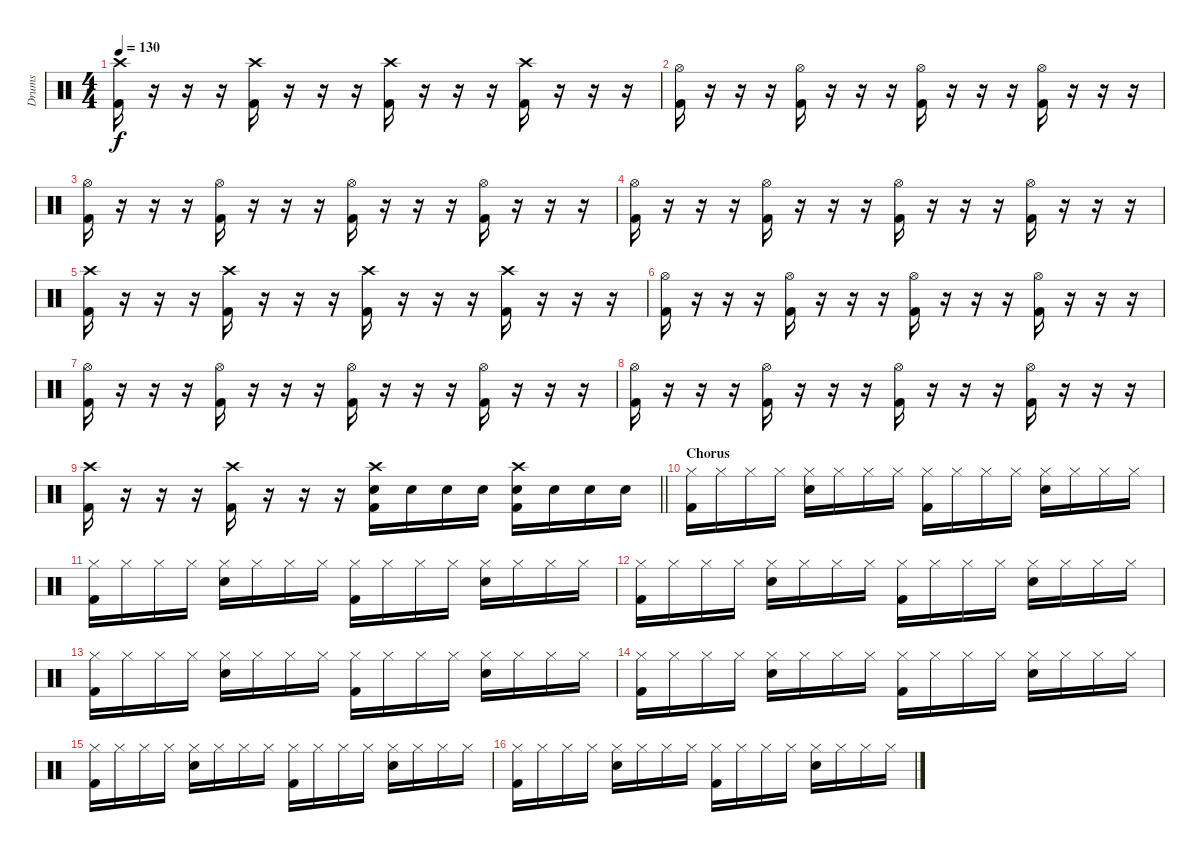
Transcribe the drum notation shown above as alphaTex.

\track ("Drums" "Drums") {instrument percussion}
\staff {score}
\articulation defaults
\ts (4 4)
\tempo 130
\clef neutral
\ks c
("Crash high (hit)" "Kick (hit) 2").16{dy f} r.16 r.16 r.16 ("Crash high (hit)" "Kick (hit) 2").16 r.16 r.16 r.16 ("Crash high (hit)" "Kick (hit) 2").16 r.16 r.16 r.16 ("Crash high (hit)" "Kick (hit) 2").16 r.16 r.16 r.16 |
("Hi-Hat (open)" "Kick (hit) 2").16 r.16 r.16 r.16 ("Hi-Hat (open)" "Kick (hit) 2").16 r.16 r.16 r.16 ("Hi-Hat (open)" "Kick (hit) 2").16 r.16 r.16 r.16 ("Hi-Hat (open)" "Kick (hit) 2").16 r.16 r.16 r.16 |
("Hi-Hat (open)" "Kick (hit) 2").16 r.16 r.16 r.16 ("Hi-Hat (open)" "Kick (hit) 2").16 r.16 r.16 r.16 ("Hi-Hat (open)" "Kick (hit) 2").16 r.16 r.16 r.16 ("Hi-Hat (open)" "Kick (hit) 2").16 r.16 r.16 r.16 |
("Hi-Hat (open)" "Kick (hit) 2").16 r.16 r.16 r.16 ("Hi-Hat (open)" "Kick (hit) 2").16 r.16 r.16 r.16 ("Hi-Hat (open)" "Kick (hit) 2").16 r.16 r.16 r.16 ("Hi-Hat (open)" "Kick (hit) 2").16 r.16 r.16 r.16 |
("Crash high (hit)" "Kick (hit) 2").16 r.16 r.16 r.16 ("Crash high (hit)" "Kick (hit) 2").16 r.16 r.16 r.16 ("Crash high (hit)" "Kick (hit) 2").16 r.16 r.16 r.16 ("Crash high (hit)" "Kick (hit) 2").16 r.16 r.16 r.16 |
("Hi-Hat (open)" "Kick (hit) 2").16 r.16 r.16 r.16 ("Hi-Hat (open)" "Kick (hit) 2").16 r.16 r.16 r.16 ("Hi-Hat (open)" "Kick (hit) 2").16 r.16 r.16 r.16 ("Hi-Hat (open)" "Kick (hit) 2").16 r.16 r.16 r.16 |
("Hi-Hat (open)" "Kick (hit) 2").16 r.16 r.16 r.16 ("Hi-Hat (open)" "Kick (hit) 2").16 r.16 r.16 r.16 ("Hi-Hat (open)" "Kick (hit) 2").16 r.16 r.16 r.16 ("Hi-Hat (open)" "Kick (hit) 2").16 r.16 r.16 r.16 |
("Hi-Hat (open)" "Kick (hit) 2").16 r.16 r.16 r.16 ("Hi-Hat (open)" "Kick (hit) 2").16 r.16 r.16 r.16 ("Hi-Hat (open)" "Kick (hit) 2").16 r.16 r.16 r.16 ("Hi-Hat (open)" "Kick (hit) 2").16 r.16 r.16 r.16 |
\barLineRight lightlight
("Crash high (hit)" "Kick (hit) 2").16 r.16 r.16 r.16 ("Crash high (hit)" "Kick (hit) 2").16 r.16 r.16 r.16 ("Crash high (hit)" "Electric Snare (hit)" "Kick (hit) 2").16 "Electric Snare (hit)".16 "Electric Snare (hit)".16 "Electric Snare (hit)".16 ("Crash high (hit)" "Electric Snare (hit)" "Kick (hit) 2").16 "Electric Snare (hit)".16 "Electric Snare (hit)".16 "Electric Snare (hit)".16 |
\section ("" "Chorus")
("Hi-Hat (closed)" "Kick (hit) 2").16 "Hi-Hat (closed)".16 "Hi-Hat (closed)".16 "Hi-Hat (closed)".16 ("Hi-Hat (closed)" "Electric Snare (hit)").16 "Hi-Hat (closed)".16 "Hi-Hat (closed)".16 "Hi-Hat (closed)".16 ("Hi-Hat (closed)" "Kick (hit) 2").16 "Hi-Hat (closed)".16 "Hi-Hat (closed)".16 "Hi-Hat (closed)".16 ("Hi-Hat (closed)" "Electric Snare (hit)").16 "Hi-Hat (closed)".16 "Hi-Hat (closed)".16 "Hi-Hat (closed)".16 |
("Hi-Hat (closed)" "Kick (hit) 2").16 "Hi-Hat (closed)".16 "Hi-Hat (closed)".16 "Hi-Hat (closed)".16 ("Hi-Hat (closed)" "Electric Snare (hit)").16 "Hi-Hat (closed)".16 "Hi-Hat (closed)".16 "Hi-Hat (closed)".16 ("Hi-Hat (closed)" "Kick (hit) 2").16 "Hi-Hat (closed)".16 "Hi-Hat (closed)".16 "Hi-Hat (closed)".16 ("Hi-Hat (closed)" "Electric Snare (hit)").16 "Hi-Hat (closed)".16 "Hi-Hat (closed)".16 "Hi-Hat (closed)".16 |
("Hi-Hat (closed)" "Kick (hit) 2").16 "Hi-Hat (closed)".16 "Hi-Hat (closed)".16 "Hi-Hat (closed)".16 ("Hi-Hat (closed)" "Electric Snare (hit)").16 "Hi-Hat (closed)".16 "Hi-Hat (closed)".16 "Hi-Hat (closed)".16 ("Hi-Hat (closed)" "Kick (hit) 2").16 "Hi-Hat (closed)".16 "Hi-Hat (closed)".16 "Hi-Hat (closed)".16 ("Hi-Hat (closed)" "Electric Snare (hit)").16 "Hi-Hat (closed)".16 "Hi-Hat (closed)".16 "Hi-Hat (closed)".16 |
("Hi-Hat (closed)" "Kick (hit) 2").16 "Hi-Hat (closed)".16 "Hi-Hat (closed)".16 "Hi-Hat (closed)".16 ("Hi-Hat (closed)" "Electric Snare (hit)").16 "Hi-Hat (closed)".16 "Hi-Hat (closed)".16 "Hi-Hat (closed)".16 ("Hi-Hat (closed)" "Kick (hit) 2").16 "Hi-Hat (closed)".16 "Hi-Hat (closed)".16 "Hi-Hat (closed)".16 ("Hi-Hat (closed)" "Electric Snare (hit)").16 "Hi-Hat (closed)".16 "Hi-Hat (closed)".16 "Hi-Hat (closed)".16 |
("Hi-Hat (closed)" "Kick (hit) 2").16 "Hi-Hat (closed)".16 "Hi-Hat (closed)".16 "Hi-Hat (closed)".16 ("Hi-Hat (closed)" "Electric Snare (hit)").16 "Hi-Hat (closed)".16 "Hi-Hat (closed)".16 "Hi-Hat (closed)".16 ("Hi-Hat (closed)" "Kick (hit) 2").16 "Hi-Hat (closed)".16 "Hi-Hat (closed)".16 "Hi-Hat (closed)".16 ("Hi-Hat (closed)" "Electric Snare (hit)").16 "Hi-Hat (closed)".16 "Hi-Hat (closed)".16 "Hi-Hat (closed)".16 |
("Hi-Hat (closed)" "Kick (hit) 2").16 "Hi-Hat (closed)".16 "Hi-Hat (closed)".16 "Hi-Hat (closed)".16 ("Hi-Hat (closed)" "Electric Snare (hit)").16 "Hi-Hat (closed)".16 "Hi-Hat (closed)".16 "Hi-Hat (closed)".16 ("Hi-Hat (closed)" "Kick (hit) 2").16 "Hi-Hat (closed)".16 "Hi-Hat (closed)".16 "Hi-Hat (closed)".16 ("Hi-Hat (closed)" "Electric Snare (hit)").16 "Hi-Hat (closed)".16 "Hi-Hat (closed)".16 "Hi-Hat (closed)".16 |
("Hi-Hat (closed)" "Kick (hit) 2").16 "Hi-Hat (closed)".16 "Hi-Hat (closed)".16 "Hi-Hat (closed)".16 ("Hi-Hat (closed)" "Electric Snare (hit)").16 "Hi-Hat (closed)".16 "Hi-Hat (closed)".16 "Hi-Hat (closed)".16 ("Hi-Hat (closed)" "Kick (hit) 2").16 "Hi-Hat (closed)".16 "Hi-Hat (closed)".16 "Hi-Hat (closed)".16 ("Hi-Hat (closed)" "Electric Snare (hit)").16 "Hi-Hat (closed)".16 "Hi-Hat (closed)".16 "Hi-Hat (closed)".16
